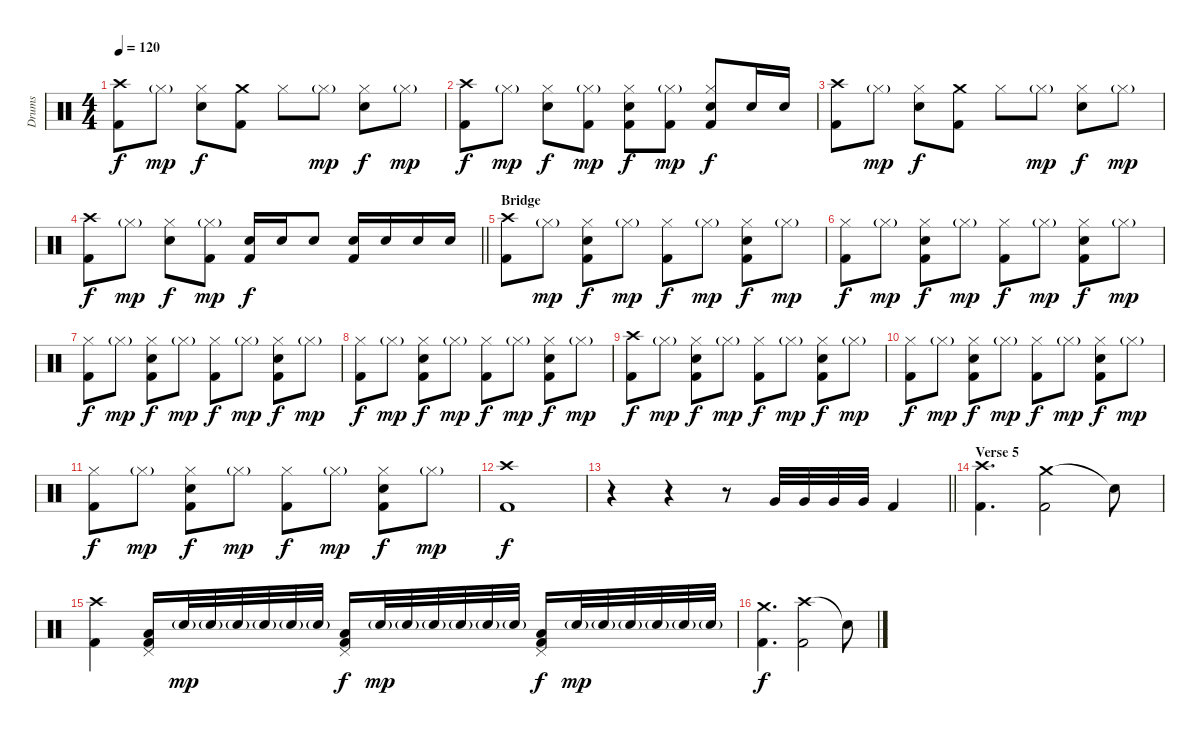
\track ("Drums" "Drums") {instrument percussion}
\staff {score}
\articulation defaults
\ts (4 4)
\tempo 120
\clef neutral
\ks c
("Crash high (hit)" "Kick (hit) 2").8{dy f} "Hi-Hat (closed)"{g}.8{dy mp} ("Hi-Hat (closed)" "Electric Snare (hit)").8{dy f} ("Crash medium (hit)" "Kick (hit) 2").8 "Hi-Hat (closed)".8 "Hi-Hat (closed)"{g}.8{dy mp} ("Hi-Hat (closed)" "Electric Snare (hit)").8{dy f} "Hi-Hat (closed)"{g}.8{dy mp} |
("Crash high (hit)" "Kick (hit) 2").8{dy f} "Hi-Hat (closed)"{g}.8{dy mp} ("Hi-Hat (closed)" "Electric Snare (hit)").8{dy f} ("Hi-Hat (closed)"{g} "Kick (hit) 2").8{dy mp} ("Hi-Hat (closed)" "Electric Snare (hit)" "Kick (hit) 2").8{dy f} ("Hi-Hat (closed)"{g} "Kick (hit) 2").8{dy mp} ("Hi-Hat (closed)" "Electric Snare (hit)" "Kick (hit) 2").8{dy f} "Electric Snare (hit)".16 "Electric Snare (hit)".16 |
("Crash high (hit)" "Kick (hit) 2").8 "Hi-Hat (closed)"{g}.8{dy mp} ("Hi-Hat (closed)" "Electric Snare (hit)").8{dy f} ("Crash medium (hit)" "Kick (hit) 2").8 "Hi-Hat (closed)".8 "Hi-Hat (closed)"{g}.8{dy mp} ("Hi-Hat (closed)" "Electric Snare (hit)").8{dy f} "Hi-Hat (closed)"{g}.8{dy mp} |
\barLineRight lightlight
("Crash high (hit)" "Kick (hit) 2").8{dy f} "Hi-Hat (closed)"{g}.8{dy mp} ("Hi-Hat (closed)" "Electric Snare (hit)").8{dy f} ("Hi-Hat (closed)"{g} "Kick (hit) 2").8{dy mp} ("Electric Snare (hit)" "Kick (hit) 2").16{dy f} "Electric Snare (hit)".16 "Electric Snare (hit)".8 ("Electric Snare (hit)" "Kick (hit) 2").16 "Electric Snare (hit)".16 "Electric Snare (hit)".16 "Electric Snare (hit)".16 |
\section ("" "Bridge")
("Crash high (hit)" "Kick (hit) 2").8 "Hi-Hat (closed)"{g}.8{dy mp} ("Hi-Hat (closed)" "Electric Snare (hit)" "Kick (hit) 2").8{dy f} "Hi-Hat (closed)"{g}.8{dy mp} ("Hi-Hat (closed)" "Kick (hit) 2").8{dy f} "Hi-Hat (closed)"{g}.8{dy mp} ("Hi-Hat (closed)" "Electric Snare (hit)" "Kick (hit) 2").8{dy f} "Hi-Hat (closed)"{g}.8{dy mp} |
("Hi-Hat (closed)" "Kick (hit) 2").8{dy f} "Hi-Hat (closed)"{g}.8{dy mp} ("Hi-Hat (closed)" "Electric Snare (hit)" "Kick (hit) 2").8{dy f} "Hi-Hat (closed)"{g}.8{dy mp} ("Hi-Hat (closed)" "Kick (hit) 2").8{dy f} "Hi-Hat (closed)"{g}.8{dy mp} ("Hi-Hat (closed)" "Electric Snare (hit)" "Kick (hit) 2").8{dy f} "Hi-Hat (closed)"{g}.8{dy mp} |
("Hi-Hat (closed)" "Kick (hit) 2").8{dy f} "Hi-Hat (closed)"{g}.8{dy mp} ("Hi-Hat (closed)" "Electric Snare (hit)" "Kick (hit) 2").8{dy f} "Hi-Hat (closed)"{g}.8{dy mp} ("Hi-Hat (closed)" "Kick (hit) 2").8{dy f} "Hi-Hat (closed)"{g}.8{dy mp} ("Hi-Hat (closed)" "Electric Snare (hit)" "Kick (hit) 2").8{dy f} "Hi-Hat (closed)"{g}.8{dy mp} |
("Hi-Hat (closed)" "Kick (hit) 2").8{dy f} "Hi-Hat (closed)"{g}.8{dy mp} ("Hi-Hat (closed)" "Electric Snare (hit)" "Kick (hit) 2").8{dy f} "Hi-Hat (closed)"{g}.8{dy mp} ("Hi-Hat (closed)" "Kick (hit) 2").8{dy f} "Hi-Hat (closed)"{g}.8{dy mp} ("Hi-Hat (closed)" "Electric Snare (hit)" "Kick (hit) 2").8{dy f} "Hi-Hat (closed)"{g}.8{dy mp} |
("Crash high (hit)" "Kick (hit) 2").8{dy f} "Hi-Hat (closed)"{g}.8{dy mp} ("Hi-Hat (closed)" "Electric Snare (hit)" "Kick (hit) 2").8{dy f} "Hi-Hat (closed)"{g}.8{dy mp} ("Hi-Hat (closed)" "Kick (hit) 2").8{dy f} "Hi-Hat (closed)"{g}.8{dy mp} ("Hi-Hat (closed)" "Electric Snare (hit)" "Kick (hit) 2").8{dy f} "Hi-Hat (closed)"{g}.8{dy mp} |
("Hi-Hat (closed)" "Kick (hit) 2").8{dy f} "Hi-Hat (closed)"{g}.8{dy mp} ("Hi-Hat (closed)" "Electric Snare (hit)" "Kick (hit) 2").8{dy f} "Hi-Hat (closed)"{g}.8{dy mp} ("Hi-Hat (closed)" "Kick (hit) 2").8{dy f} "Hi-Hat (closed)"{g}.8{dy mp} ("Hi-Hat (closed)" "Electric Snare (hit)" "Kick (hit) 2").8{dy f} "Hi-Hat (closed)"{g}.8{dy mp} |
("Hi-Hat (closed)" "Kick (hit) 2").8{dy f} "Hi-Hat (closed)"{g}.8{dy mp} ("Hi-Hat (closed)" "Electric Snare (hit)" "Kick (hit) 2").8{dy f} "Hi-Hat (closed)"{g}.8{dy mp} ("Hi-Hat (closed)" "Kick (hit) 2").8{dy f} "Hi-Hat (closed)"{g}.8{dy mp} ("Hi-Hat (closed)" "Electric Snare (hit)" "Kick (hit) 2").8{dy f} "Hi-Hat (closed)"{g}.8{dy mp} |
("Crash high (hit)" "Kick (hit) 2").1{dy f} |
\barLineRight lightlight
r.4 r.4 r.8 "Very Low Tom (hit)".32 "Very Low Tom (hit)".32 "Very Low Tom (hit)".32 "Very Low Tom (hit)".32 "Kick (hit) 2".4 |
\section ("" "Verse 5")
("Crash high (hit)" "Kick (hit) 2").4{d} ("Crash medium (hit)" "Kick (hit) 2").2 "Snare (hit)"{t}.8 |
("Crash high (hit)" "Kick (hit) 2").4 ("Pedal Hi-Hat (hit)" "Low Tom (hit)" "Kick (hit) 2").16 "Electric Snare (hit)"{g}.32{dy mp} "Electric Snare (hit)"{g}.32 "Electric Snare (hit)"{g}.32 "Electric Snare (hit)"{g}.32 "Electric Snare (hit)"{g}.32 "Electric Snare (hit)"{g}.32 ("Pedal Hi-Hat (hit)" "Low Tom (hit)" "Kick (hit) 2").16{dy f} "Electric Snare (hit)"{g}.32{dy mp} "Electric Snare (hit)"{g}.32 "Electric Snare (hit)"{g}.32 "Electric Snare (hit)"{g}.32 "Electric Snare (hit)"{g}.32 "Electric Snare (hit)"{g}.32 ("Pedal Hi-Hat (hit)" "Low Tom (hit)" "Kick (hit) 2").16{dy f} "Electric Snare (hit)"{g}.32{dy mp} "Electric Snare (hit)"{g}.32 "Electric Snare (hit)"{g}.32 "Electric Snare (hit)"{g}.32 "Electric Snare (hit)"{g}.32 "Electric Snare (hit)"{g}.32 |
("Crash medium (hit)" "Kick (hit) 2").4{d dy f} ("Crash high (hit)" "Kick (hit) 2").2 "Snare (hit)"{t}.8
